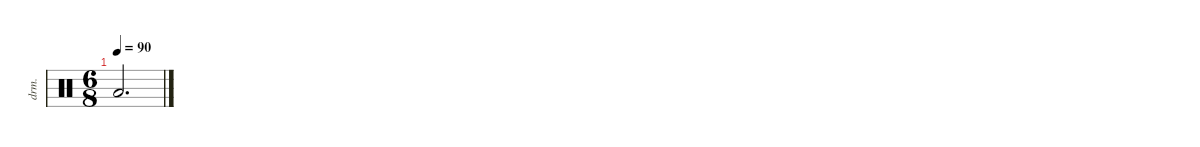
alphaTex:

\defaultSystemsLayout 4
\hideDynamics
\bracketExtendMode nobrackets
\otherSystemsTrackNameOrientation horizontal
\track ("Jukka Nevalainen" "drm.") {instrument percussion}
\staff {score}
\articulation defaults
\ts (6 8)
\tempo 90
\clef neutral
\ks c "Low Floor Tom (hit)".2{d dy f}
